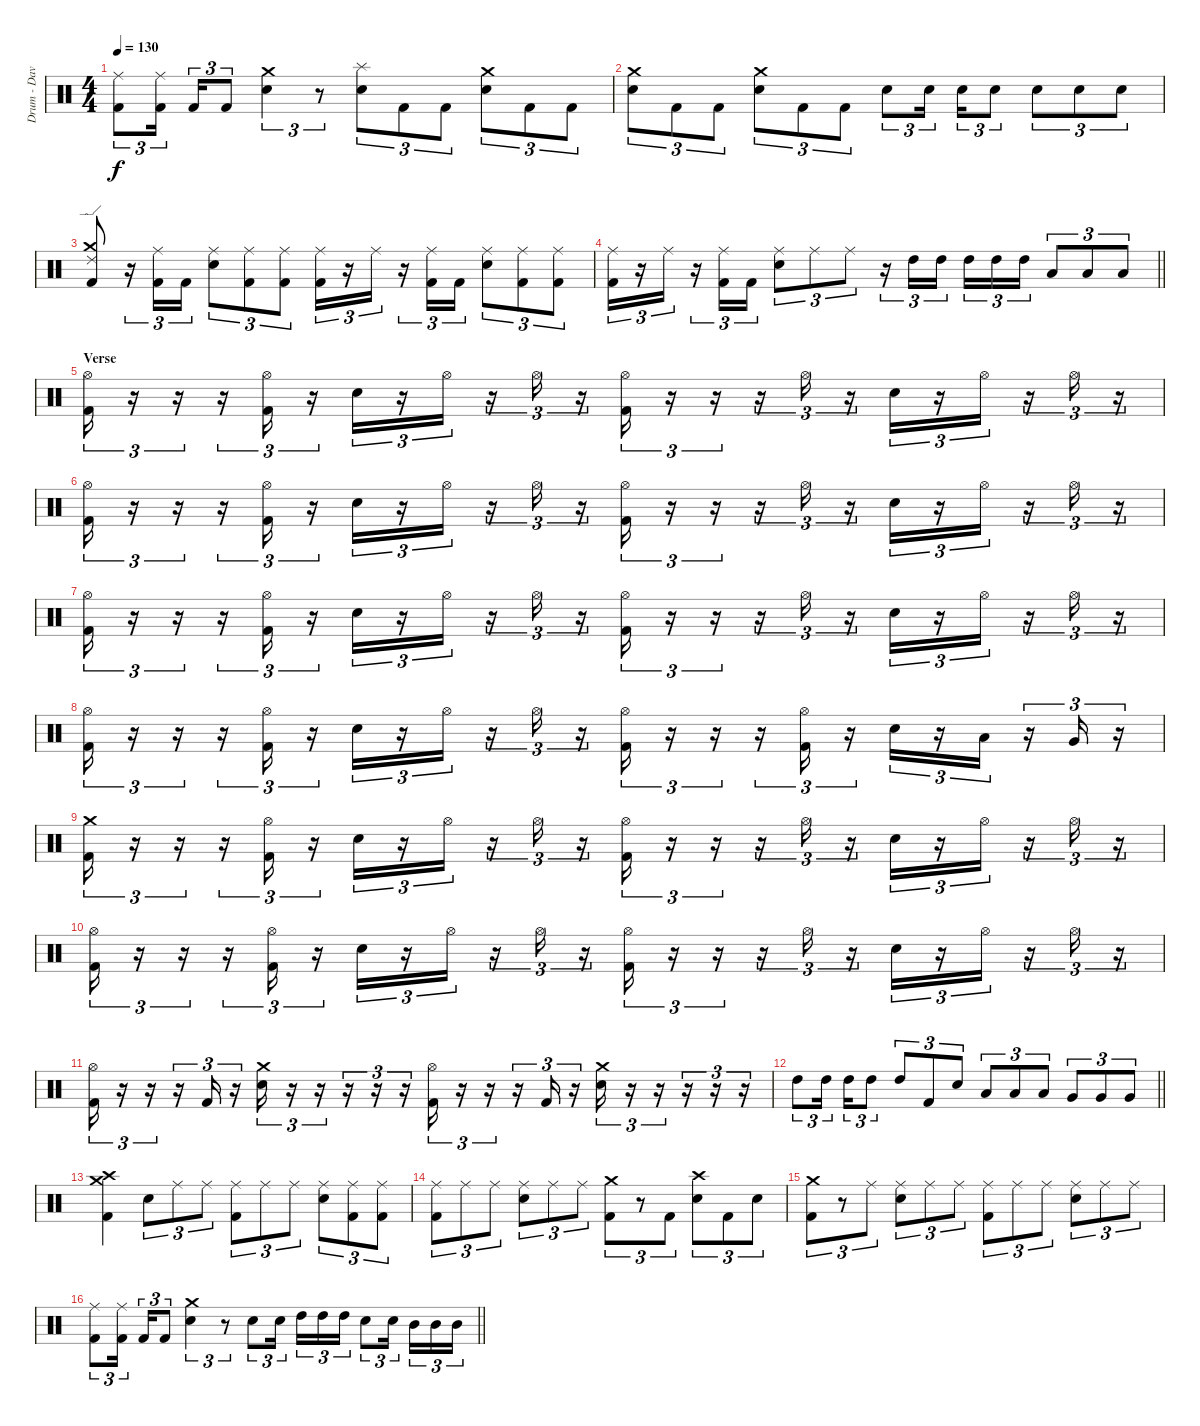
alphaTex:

\track ("Drum - Dave Mackintosh" "Drum - Dav") {instrument percussion}
\staff {score}
\articulation defaults
\ts (4 4)
\tempo 130
\clef neutral
\ks c
("Ride (middle)" "Kick (hit) 2").8{tu (3 2) dy f} ("Ride (middle)" "Kick (hit) 2").16{tu (3 2) beam splitsecondary} "Kick (hit) 2".16{tu (3 2)} "Kick (hit) 2".8{tu (3 2)} ("Crash medium (hit)" "Electric Snare (hit)").4{tu (3 2)} r.8{tu (3 2)} ("Splash (hit)" "Electric Snare (hit)").8{tu (3 2)} "Kick (hit) 2".8{tu (3 2)} "Kick (hit) 2".8{tu (3 2)} ("Crash medium (hit)" "Electric Snare (hit)").8{tu (3 2)} "Kick (hit) 2".8{tu (3 2)} "Kick (hit) 2".8{tu (3 2)} |
("Crash medium (hit)" "Electric Snare (hit)").8{tu (3 2)} "Kick (hit) 2".8{tu (3 2)} "Kick (hit) 2".8{tu (3 2)} ("Crash medium (hit)" "Electric Snare (hit)").8{tu (3 2)} "Kick (hit) 2".8{tu (3 2)} "Kick (hit) 2".8{tu (3 2)} "Electric Snare (hit)".8{tu (3 2)} "Electric Snare (hit)".16{tu (3 2) beam splitsecondary} "Electric Snare (hit)".16{tu (3 2)} "Electric Snare (hit)".8{tu (3 2)} "Electric Snare (hit)".8{tu (3 2)} "Electric Snare (hit)".8{tu (3 2)} "Electric Snare (hit)".8{tu (3 2)} |
("Crash medium (hit)" "Ride (edge) 2" "Kick (hit) 2").8 r.16{tu (3 2)} ("Ride (middle)" "Kick (hit) 2").16{tu (3 2)} "Kick (hit) 2".16{tu (3 2)} ("Ride (middle)" "Electric Snare (hit)").8{tu (3 2)} ("Ride (middle)" "Kick (hit) 2").8{tu (3 2)} ("Ride (middle)" "Kick (hit) 2").8{tu (3 2)} ("Ride (middle)" "Kick (hit) 2").16{tu (3 2)} r.16{tu (3 2)} "Ride (middle)".16{tu (3 2)} r.16{tu (3 2)} ("Ride (middle)" "Kick (hit) 2").16{tu (3 2)} "Kick (hit) 2".16{tu (3 2)} ("Ride (middle)" "Electric Snare (hit)").8{tu (3 2)} ("Ride (middle)" "Kick (hit) 2").8{tu (3 2)} ("Ride (middle)" "Kick (hit) 2").8{tu (3 2)} |
\barLineRight lightlight
("Ride (middle)" "Kick (hit) 2").16{tu (3 2)} r.16{tu (3 2)} "Ride (middle)".16{tu (3 2)} r.16{tu (3 2)} ("Ride (middle)" "Kick (hit) 2").16{tu (3 2)} "Kick (hit) 2".16{tu (3 2)} ("Ride (middle)" "Electric Snare (hit)").8{tu (3 2)} "Ride (middle)".8{tu (3 2)} "Ride (middle)".8{tu (3 2)} r.16{tu (3 2)} "High Tom (hit)".16{tu (3 2)} "High Tom (hit)".16{tu (3 2) beam splitsecondary} "High Tom (hit)".16{tu (3 2)} "High Tom (hit)".16{tu (3 2)} "High Tom (hit)".16{tu (3 2)} "Low Tom (hit)".8{tu (3 2)} "Low Tom (hit)".8{tu (3 2)} "Low Tom (hit)".8{tu (3 2)} |
\section ("" "Verse")
("Hi-Hat (open)" "Kick (hit) 2").16{tu (3 2)} r.16{tu (3 2)} r.16{tu (3 2)} r.16{tu (3 2)} ("Hi-Hat (open)" "Kick (hit) 2").16{tu (3 2)} r.16{tu (3 2)} "Electric Snare (hit)".16{tu (3 2)} r.16{tu (3 2)} "Hi-Hat (open)".16{tu (3 2)} r.16{tu (3 2)} "Hi-Hat (open)".16{tu (3 2)} r.16{tu (3 2)} ("Hi-Hat (open)" "Kick (hit) 2").16{tu (3 2)} r.16{tu (3 2)} r.16{tu (3 2)} r.16{tu (3 2)} "Hi-Hat (open)".16{tu (3 2)} r.16{tu (3 2)} "Electric Snare (hit)".16{tu (3 2)} r.16{tu (3 2)} "Hi-Hat (open)".16{tu (3 2)} r.16{tu (3 2)} "Hi-Hat (open)".16{tu (3 2)} r.16{tu (3 2)} |
("Hi-Hat (open)" "Kick (hit) 2").16{tu (3 2)} r.16{tu (3 2)} r.16{tu (3 2)} r.16{tu (3 2)} ("Hi-Hat (open)" "Kick (hit) 2").16{tu (3 2)} r.16{tu (3 2)} "Electric Snare (hit)".16{tu (3 2)} r.16{tu (3 2)} "Hi-Hat (open)".16{tu (3 2)} r.16{tu (3 2)} "Hi-Hat (open)".16{tu (3 2)} r.16{tu (3 2)} ("Hi-Hat (open)" "Kick (hit) 2").16{tu (3 2)} r.16{tu (3 2)} r.16{tu (3 2)} r.16{tu (3 2)} "Hi-Hat (open)".16{tu (3 2)} r.16{tu (3 2)} "Electric Snare (hit)".16{tu (3 2)} r.16{tu (3 2)} "Hi-Hat (open)".16{tu (3 2)} r.16{tu (3 2)} "Hi-Hat (open)".16{tu (3 2)} r.16{tu (3 2)} |
("Hi-Hat (open)" "Kick (hit) 2").16{tu (3 2)} r.16{tu (3 2)} r.16{tu (3 2)} r.16{tu (3 2)} ("Hi-Hat (open)" "Kick (hit) 2").16{tu (3 2)} r.16{tu (3 2)} "Electric Snare (hit)".16{tu (3 2)} r.16{tu (3 2)} "Hi-Hat (open)".16{tu (3 2)} r.16{tu (3 2)} "Hi-Hat (open)".16{tu (3 2)} r.16{tu (3 2)} ("Hi-Hat (open)" "Kick (hit) 2").16{tu (3 2)} r.16{tu (3 2)} r.16{tu (3 2)} r.16{tu (3 2)} "Hi-Hat (open)".16{tu (3 2)} r.16{tu (3 2)} "Electric Snare (hit)".16{tu (3 2)} r.16{tu (3 2)} "Hi-Hat (open)".16{tu (3 2)} r.16{tu (3 2)} "Hi-Hat (open)".16{tu (3 2)} r.16{tu (3 2)} |
("Hi-Hat (open)" "Kick (hit) 2").16{tu (3 2)} r.16{tu (3 2)} r.16{tu (3 2)} r.16{tu (3 2)} ("Hi-Hat (open)" "Kick (hit) 2").16{tu (3 2)} r.16{tu (3 2)} "Electric Snare (hit)".16{tu (3 2)} r.16{tu (3 2)} "Hi-Hat (open)".16{tu (3 2)} r.16{tu (3 2)} "Hi-Hat (open)".16{tu (3 2)} r.16{tu (3 2)} ("Hi-Hat (open)" "Kick (hit) 2").16{tu (3 2)} r.16{tu (3 2)} r.16{tu (3 2)} r.16{tu (3 2)} ("Hi-Hat (open)" "Kick (hit) 2").16{tu (3 2)} r.16{tu (3 2)} "Electric Snare (hit)".16{tu (3 2)} r.16{tu (3 2)} "Low Tom (hit)".16{tu (3 2)} r.16{tu (3 2)} "Very Low Tom (hit)".16{tu (3 2)} r.16{tu (3 2)} |
("Crash medium (hit)" "Kick (hit) 2").16{tu (3 2)} r.16{tu (3 2)} r.16{tu (3 2)} r.16{tu (3 2)} ("Hi-Hat (open)" "Kick (hit) 2").16{tu (3 2)} r.16{tu (3 2)} "Electric Snare (hit)".16{tu (3 2)} r.16{tu (3 2)} "Hi-Hat (open)".16{tu (3 2)} r.16{tu (3 2)} "Hi-Hat (open)".16{tu (3 2)} r.16{tu (3 2)} ("Hi-Hat (open)" "Kick (hit) 2").16{tu (3 2)} r.16{tu (3 2)} r.16{tu (3 2)} r.16{tu (3 2)} "Hi-Hat (open)".16{tu (3 2)} r.16{tu (3 2)} "Electric Snare (hit)".16{tu (3 2)} r.16{tu (3 2)} "Hi-Hat (open)".16{tu (3 2)} r.16{tu (3 2)} "Hi-Hat (open)".16{tu (3 2)} r.16{tu (3 2)} |
("Hi-Hat (open)" "Kick (hit) 2").16{tu (3 2)} r.16{tu (3 2)} r.16{tu (3 2)} r.16{tu (3 2)} ("Hi-Hat (open)" "Kick (hit) 2").16{tu (3 2)} r.16{tu (3 2)} "Electric Snare (hit)".16{tu (3 2)} r.16{tu (3 2)} "Hi-Hat (open)".16{tu (3 2)} r.16{tu (3 2)} "Hi-Hat (open)".16{tu (3 2)} r.16{tu (3 2)} ("Hi-Hat (open)" "Kick (hit) 2").16{tu (3 2)} r.16{tu (3 2)} r.16{tu (3 2)} r.16{tu (3 2)} "Hi-Hat (open)".16{tu (3 2)} r.16{tu (3 2)} "Electric Snare (hit)".16{tu (3 2)} r.16{tu (3 2)} "Hi-Hat (open)".16{tu (3 2)} r.16{tu (3 2)} "Hi-Hat (open)".16{tu (3 2)} r.16{tu (3 2)} |
("Hi-Hat (open)" "Kick (hit) 2").16{tu (3 2)} r.16{tu (3 2)} r.16{tu (3 2)} r.16{tu (3 2)} "Kick (hit) 2".16{tu (3 2)} r.16{tu (3 2)} ("Crash medium (hit)" "Electric Snare (hit)").16{tu (3 2)} r.16{tu (3 2)} r.16{tu (3 2)} r.16{tu (3 2)} r.16{tu (3 2)} r.16{tu (3 2)} ("Hi-Hat (open)" "Kick (hit) 2").16{tu (3 2)} r.16{tu (3 2)} r.16{tu (3 2)} r.16{tu (3 2)} "Kick (hit) 2".16{tu (3 2)} r.16{tu (3 2)} ("Crash medium (hit)" "Electric Snare (hit)").16{tu (3 2)} r.16{tu (3 2)} r.16{tu (3 2)} r.16{tu (3 2)} r.16{tu (3 2)} r.16{tu (3 2)} |
\barLineRight lightlight "High Tom (hit)".8{tu (3 2)} "High Tom (hit)".16{tu (3 2) beam splitsecondary} "High Tom (hit)".16{tu (3 2)} "High Tom (hit)".8{tu (3 2)} "High Tom (hit)".8{tu (3 2)} "Kick (hit) 2".8{tu (3 2)} "Electric Snare (hit)".8{tu (3 2)} "Low Tom (hit)".8{tu (3 2)} "Low Tom (hit)".8{tu (3 2)} "Low Tom (hit)".8{tu (3 2)} "Very Low Tom (hit)".8{tu (3 2)} "Very Low Tom (hit)".8{tu (3 2)} "Very Low Tom (hit)".8{tu (3 2)}
|
\section ("" "")
("Crash medium (hit)" "Crash high (hit)" "Kick (hit) 2").4 "Electric Snare (hit)".8{tu (3 2)} "Ride (middle)".8{tu (3 2)} "Ride (middle)".8{tu (3 2)} ("Ride (middle)" "Kick (hit) 2").8{tu (3 2)} "Ride (middle)".8{tu (3 2)} "Ride (middle)".8{tu (3 2)} ("Ride (middle)" "Electric Snare (hit)").8{tu (3 2)} ("Ride (middle)" "Kick (hit) 2").8{tu (3 2)} ("Ride (middle)" "Kick (hit) 2").8{tu (3 2)} |
("Ride (middle)" "Kick (hit) 2").8{tu (3 2)} "Ride (middle)".8{tu (3 2)} "Ride (middle)".8{tu (3 2)} ("Ride (middle)" "Electric Snare (hit)").8{tu (3 2)} "Ride (middle)".8{tu (3 2)} "Ride (middle)".8{tu (3 2)} ("Crash medium (hit)" "Kick (hit) 2").8{tu (3 2)} r.8{tu (3 2)} "Kick (hit) 2".8{tu (3 2)} ("Crash high (hit)" "Electric Snare (hit)").8{tu (3 2)} "Kick (hit) 2".8{tu (3 2)} "Electric Snare (hit)".8{tu (3 2)} |
("Crash medium (hit)" "Kick (hit) 2").8{tu (3 2)} r.8{tu (3 2)} "Ride (middle)".8{tu (3 2)} ("Ride (middle)" "Electric Snare (hit)").8{tu (3 2)} "Ride (middle)".8{tu (3 2)} "Ride (middle)".8{tu (3 2)} ("Ride (middle)" "Kick (hit) 2").8{tu (3 2)} "Ride (middle)".8{tu (3 2)} "Ride (middle)".8{tu (3 2)} ("Ride (middle)" "Electric Snare (hit)").8{tu (3 2)} "Ride (middle)".8{tu (3 2)} "Ride (middle)".8{tu (3 2)} |
\barLineRight lightlight
("Ride (middle)" "Kick (hit) 2").8{tu (3 2)} ("Ride (middle)" "Kick (hit) 2").16{tu (3 2) beam splitsecondary} "Kick (hit) 2".16{tu (3 2)} "Kick (hit) 2".8{tu (3 2)} ("Crash medium (hit)" "Electric Snare (hit)").4{tu (3 2)} r.8{tu (3 2)} "Electric Snare (hit)".8{tu (3 2)} "Electric Snare (hit)".16{tu (3 2) beam splitsecondary} "High Tom (hit)".16{tu (3 2)} "High Tom (hit)".16{tu (3 2)} "High Tom (hit)".16{tu (3 2)} "Electric Snare (hit)".8{tu (3 2)} "Electric Snare (hit)".16{tu (3 2) beam splitsecondary} "Mid Tom (hit)".16{tu (3 2)} "Mid Tom (hit)".16{tu (3 2)} "Mid Tom (hit)".16{tu (3 2)}
